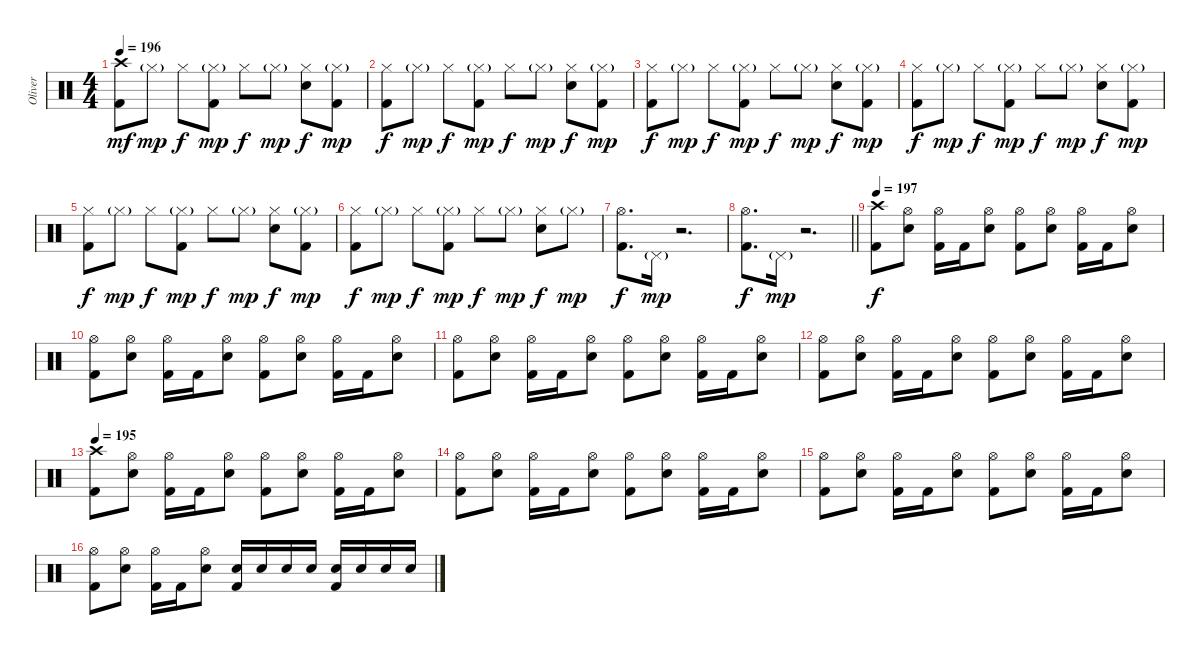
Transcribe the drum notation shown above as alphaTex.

\track ("Oliver" "Oliver") {instrument percussion}
\staff {score}
\articulation defaults
\ts (4 4)
\tempo 196
\clef neutral
\ks c
("Crash high (hit)" "Kick (hit) 2").8{dy mf} "Hi-Hat (closed)"{g}.8{dy mp} "Hi-Hat (closed)".8{dy f} ("Hi-Hat (closed)"{g} "Kick (hit) 2").8{dy mp} "Hi-Hat (closed)".8{dy f} "Hi-Hat (closed)"{g}.8{dy mp} ("Hi-Hat (closed)" "Electric Snare (hit)").8{dy f} ("Hi-Hat (closed)"{g} "Kick (hit) 2").8{dy mp} |
("Hi-Hat (closed)" "Kick (hit) 2").8{dy f} "Hi-Hat (closed)"{g}.8{dy mp} "Hi-Hat (closed)".8{dy f} ("Hi-Hat (closed)"{g} "Kick (hit) 2").8{dy mp} "Hi-Hat (closed)".8{dy f} "Hi-Hat (closed)"{g}.8{dy mp} ("Hi-Hat (closed)" "Electric Snare (hit)").8{dy f} ("Hi-Hat (closed)"{g} "Kick (hit) 2").8{dy mp} |
("Hi-Hat (closed)" "Kick (hit) 2").8{dy f} "Hi-Hat (closed)"{g}.8{dy mp} "Hi-Hat (closed)".8{dy f} ("Hi-Hat (closed)"{g} "Kick (hit) 2").8{dy mp} "Hi-Hat (closed)".8{dy f} "Hi-Hat (closed)"{g}.8{dy mp} ("Hi-Hat (closed)" "Electric Snare (hit)").8{dy f} ("Hi-Hat (closed)"{g} "Kick (hit) 2").8{dy mp} |
("Hi-Hat (closed)" "Kick (hit) 2").8{dy f} "Hi-Hat (closed)"{g}.8{dy mp} "Hi-Hat (closed)".8{dy f} ("Hi-Hat (closed)"{g} "Kick (hit) 2").8{dy mp} "Hi-Hat (closed)".8{dy f} "Hi-Hat (closed)"{g}.8{dy mp} ("Hi-Hat (closed)" "Electric Snare (hit)").8{dy f} ("Hi-Hat (closed)"{g} "Kick (hit) 2").8{dy mp} |
("Hi-Hat (closed)" "Kick (hit) 2").8{dy f} "Hi-Hat (closed)"{g}.8{dy mp} "Hi-Hat (closed)".8{dy f} ("Hi-Hat (closed)"{g} "Kick (hit) 2").8{dy mp} "Hi-Hat (closed)".8{dy f} "Hi-Hat (closed)"{g}.8{dy mp} ("Hi-Hat (closed)" "Electric Snare (hit)").8{dy f} ("Hi-Hat (closed)"{g} "Kick (hit) 2").8{dy mp} |
("Hi-Hat (closed)" "Kick (hit) 2").8{dy f} "Hi-Hat (closed)"{g}.8{dy mp} "Hi-Hat (closed)".8{dy f} ("Hi-Hat (closed)"{g} "Kick (hit) 2").8{dy mp} "Hi-Hat (closed)".8{dy f} "Hi-Hat (closed)"{g}.8{dy mp} ("Hi-Hat (closed)" "Electric Snare (hit)").8{dy f} "Hi-Hat (closed)"{g}.8{dy mp} |
("Hi-Hat (open)" "Kick (hit) 2").8{d dy f} "Pedal Hi-Hat (hit)"{g}.16{dy mp} r.2{d} |
\barLineRight lightlight
("Hi-Hat (open)" "Kick (hit) 2").8{d dy f} "Pedal Hi-Hat (hit)"{g}.16{dy mp} r.2{d} |
\section ("" "")
\tempo 197
("Crash high (hit)" "Kick (hit) 2").8{dy f} ("Hi-Hat (open)" "Electric Snare (hit)").8 ("Hi-Hat (open)" "Kick (hit) 2").16 "Kick (hit) 2".16 ("Hi-Hat (open)" "Electric Snare (hit)").8 ("Hi-Hat (open)" "Kick (hit) 2").8 ("Hi-Hat (open)" "Electric Snare (hit)").8 ("Hi-Hat (open)" "Kick (hit) 2").16 "Kick (hit) 2".16 ("Hi-Hat (open)" "Electric Snare (hit)").8 |
("Hi-Hat (open)" "Kick (hit) 2").8 ("Hi-Hat (open)" "Electric Snare (hit)").8 ("Hi-Hat (open)" "Kick (hit) 2").16 "Kick (hit) 2".16 ("Hi-Hat (open)" "Electric Snare (hit)").8 ("Hi-Hat (open)" "Kick (hit) 2").8 ("Hi-Hat (open)" "Electric Snare (hit)").8 ("Hi-Hat (open)" "Kick (hit) 2").16 "Kick (hit) 2".16 ("Hi-Hat (open)" "Electric Snare (hit)").8 |
("Hi-Hat (open)" "Kick (hit) 2").8 ("Hi-Hat (open)" "Electric Snare (hit)").8 ("Hi-Hat (open)" "Kick (hit) 2").16 "Kick (hit) 2".16 ("Hi-Hat (open)" "Electric Snare (hit)").8 ("Hi-Hat (open)" "Kick (hit) 2").8 ("Hi-Hat (open)" "Electric Snare (hit)").8 ("Hi-Hat (open)" "Kick (hit) 2").16 "Kick (hit) 2".16 ("Hi-Hat (open)" "Electric Snare (hit)").8 |
("Hi-Hat (open)" "Kick (hit) 2").8 ("Hi-Hat (open)" "Electric Snare (hit)").8 ("Hi-Hat (open)" "Kick (hit) 2").16 "Kick (hit) 2".16 ("Hi-Hat (open)" "Electric Snare (hit)").8 ("Hi-Hat (open)" "Kick (hit) 2").8 ("Hi-Hat (open)" "Electric Snare (hit)").8 ("Hi-Hat (open)" "Kick (hit) 2").16 "Kick (hit) 2".16 ("Hi-Hat (open)" "Electric Snare (hit)").8 |
\tempo 195
("Crash high (hit)" "Kick (hit) 2").8 ("Hi-Hat (open)" "Electric Snare (hit)").8 ("Hi-Hat (open)" "Kick (hit) 2").16 "Kick (hit) 2".16 ("Hi-Hat (open)" "Electric Snare (hit)").8 ("Hi-Hat (open)" "Kick (hit) 2").8 ("Hi-Hat (open)" "Electric Snare (hit)").8 ("Hi-Hat (open)" "Kick (hit) 2").16 "Kick (hit) 2".16 ("Hi-Hat (open)" "Electric Snare (hit)").8 |
("Hi-Hat (open)" "Kick (hit) 2").8 ("Hi-Hat (open)" "Electric Snare (hit)").8 ("Hi-Hat (open)" "Kick (hit) 2").16 "Kick (hit) 2".16 ("Hi-Hat (open)" "Electric Snare (hit)").8 ("Hi-Hat (open)" "Kick (hit) 2").8 ("Hi-Hat (open)" "Electric Snare (hit)").8 ("Hi-Hat (open)" "Kick (hit) 2").16 "Kick (hit) 2".16 ("Hi-Hat (open)" "Electric Snare (hit)").8 |
("Hi-Hat (open)" "Kick (hit) 2").8 ("Hi-Hat (open)" "Electric Snare (hit)").8 ("Hi-Hat (open)" "Kick (hit) 2").16 "Kick (hit) 2".16 ("Hi-Hat (open)" "Electric Snare (hit)").8 ("Hi-Hat (open)" "Kick (hit) 2").8 ("Hi-Hat (open)" "Electric Snare (hit)").8 ("Hi-Hat (open)" "Kick (hit) 2").16 "Kick (hit) 2".16 ("Hi-Hat (open)" "Electric Snare (hit)").8 |
("Hi-Hat (open)" "Kick (hit) 2").8 ("Hi-Hat (open)" "Electric Snare (hit)").8 ("Hi-Hat (open)" "Kick (hit) 2").16 "Kick (hit) 2".16 ("Hi-Hat (open)" "Electric Snare (hit)").8 ("Electric Snare (hit)" "Kick (hit) 2").16 "Electric Snare (hit)".16 "Electric Snare (hit)".16 "Electric Snare (hit)".16 ("Electric Snare (hit)" "Kick (hit) 2").16 "Electric Snare (hit)".16 "Electric Snare (hit)".16 "Electric Snare (hit)".16
